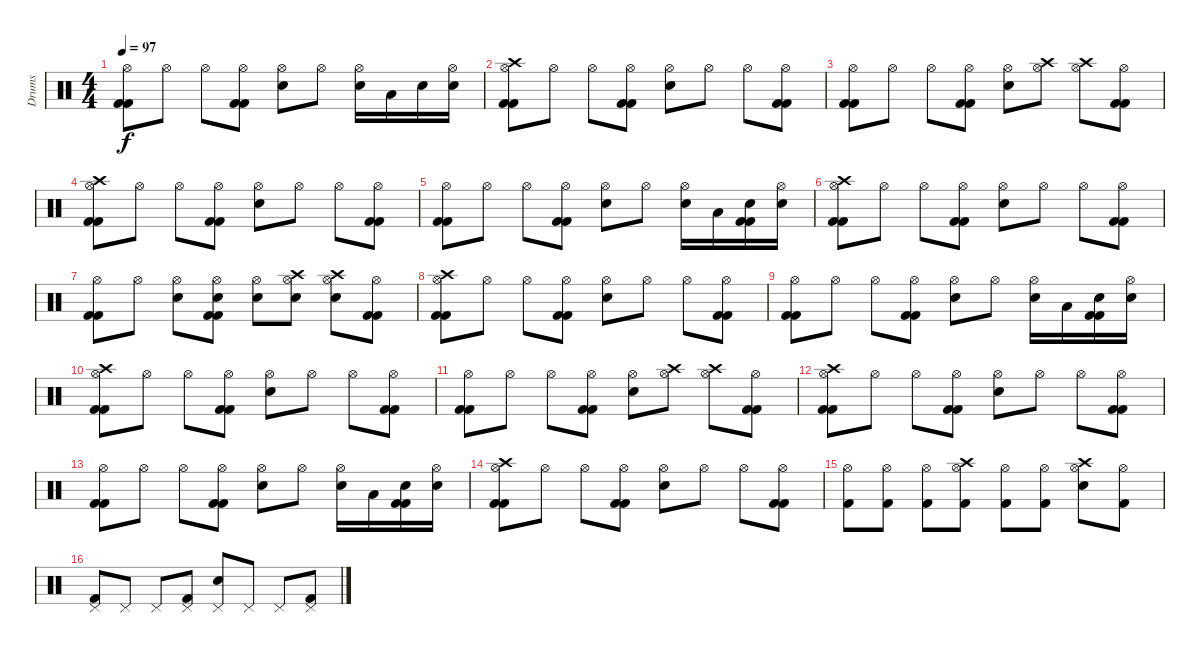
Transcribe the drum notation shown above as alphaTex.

\track ("Drums" "Drums") {instrument percussion}
\staff {score}
\articulation defaults
\ts (4 4)
\tempo 97
\clef neutral
\ks c
("Hi-Hat (open)" "Kick (hit) 2" "Kick (hit) 2").8{dy f} "Hi-Hat (open)".8 "Hi-Hat (open)".8 ("Hi-Hat (open)" "Kick (hit) 2" "Kick (hit) 2").8 ("Hi-Hat (open)" "Electric Snare (hit)").8 "Hi-Hat (open)".8 ("Hi-Hat (open)" "Electric Snare (hit)").16 "Low Tom (hit)".16 "Electric Snare (hit)".16 ("Hi-Hat (open)" "Electric Snare (hit)").16 |
("Hi-Hat (open)" "Crash high (hit)" "Kick (hit) 2" "Kick (hit) 2").8 "Hi-Hat (open)".8 "Hi-Hat (open)".8 ("Hi-Hat (open)" "Kick (hit) 2" "Kick (hit) 2").8 ("Hi-Hat (open)" "Electric Snare (hit)").8 "Hi-Hat (open)".8 "Hi-Hat (open)".8 ("Hi-Hat (open)" "Kick (hit) 2" "Kick (hit) 2").8 |
("Hi-Hat (open)" "Kick (hit) 2" "Kick (hit) 2").8 "Hi-Hat (open)".8 "Hi-Hat (open)".8 ("Hi-Hat (open)" "Kick (hit) 2" "Kick (hit) 2").8 ("Hi-Hat (open)" "Electric Snare (hit)").8 ("Hi-Hat (open)" "Crash high (hit)").8 ("Hi-Hat (open)" "Crash high (hit)").8 ("Hi-Hat (open)" "Kick (hit) 2" "Kick (hit) 2").8 |
("Hi-Hat (open)" "Crash high (hit)" "Kick (hit) 2" "Kick (hit) 2").8 "Hi-Hat (open)".8 "Hi-Hat (open)".8 ("Hi-Hat (open)" "Kick (hit) 2" "Kick (hit) 2").8 ("Hi-Hat (open)" "Electric Snare (hit)").8 "Hi-Hat (open)".8 "Hi-Hat (open)".8 ("Hi-Hat (open)" "Kick (hit) 2" "Kick (hit) 2").8 |
("Hi-Hat (open)" "Kick (hit) 2" "Kick (hit) 2").8 "Hi-Hat (open)".8 "Hi-Hat (open)".8 ("Hi-Hat (open)" "Kick (hit) 2" "Kick (hit) 2").8 ("Hi-Hat (open)" "Electric Snare (hit)").8 "Hi-Hat (open)".8 ("Hi-Hat (open)" "Electric Snare (hit)").16 "Low Tom (hit)".16 ("Electric Snare (hit)" "Kick (hit) 2" "Kick (hit) 2").16 ("Hi-Hat (open)" "Electric Snare (hit)").16 |
("Hi-Hat (open)" "Crash high (hit)" "Kick (hit) 2" "Kick (hit) 2").8 "Hi-Hat (open)".8 "Hi-Hat (open)".8 ("Hi-Hat (open)" "Kick (hit) 2" "Kick (hit) 2").8 ("Hi-Hat (open)" "Electric Snare (hit)").8 "Hi-Hat (open)".8 "Hi-Hat (open)".8 ("Hi-Hat (open)" "Kick (hit) 2" "Kick (hit) 2").8 |
("Hi-Hat (open)" "Kick (hit) 2" "Kick (hit) 2").8 "Hi-Hat (open)".8 ("Hi-Hat (open)" "Snare (hit) 2").8 ("Hi-Hat (open)" "Kick (hit) 2" "Snare (hit) 2" "Kick (hit) 2").8 ("Hi-Hat (open)" "Electric Snare (hit)").8 ("Hi-Hat (open)" "Crash high (hit)" "Snare (hit) 2").8 ("Hi-Hat (open)" "Crash high (hit)" "Snare (hit) 2").8 ("Hi-Hat (open)" "Kick (hit) 2" "Kick (hit) 2").8 |
("Hi-Hat (open)" "Crash high (hit)" "Kick (hit) 2" "Kick (hit) 2").8 "Hi-Hat (open)".8 "Hi-Hat (open)".8 ("Hi-Hat (open)" "Kick (hit) 2" "Kick (hit) 2").8 ("Hi-Hat (open)" "Electric Snare (hit)").8 "Hi-Hat (open)".8 "Hi-Hat (open)".8 ("Hi-Hat (open)" "Kick (hit) 2" "Kick (hit) 2").8 |
("Hi-Hat (open)" "Kick (hit) 2" "Kick (hit) 2").8 "Hi-Hat (open)".8 "Hi-Hat (open)".8 ("Hi-Hat (open)" "Kick (hit) 2" "Kick (hit) 2").8 ("Hi-Hat (open)" "Electric Snare (hit)").8 "Hi-Hat (open)".8 ("Hi-Hat (open)" "Electric Snare (hit)").16 "Low Tom (hit)".16 ("Electric Snare (hit)" "Kick (hit) 2" "Kick (hit) 2").16 ("Hi-Hat (open)" "Electric Snare (hit)").16 |
("Hi-Hat (open)" "Crash high (hit)" "Kick (hit) 2" "Kick (hit) 2").8 "Hi-Hat (open)".8 "Hi-Hat (open)".8 ("Hi-Hat (open)" "Kick (hit) 2" "Kick (hit) 2").8 ("Hi-Hat (open)" "Electric Snare (hit)").8 "Hi-Hat (open)".8 "Hi-Hat (open)".8 ("Hi-Hat (open)" "Kick (hit) 2" "Kick (hit) 2").8 |
("Hi-Hat (open)" "Kick (hit) 2" "Kick (hit) 2").8 "Hi-Hat (open)".8 "Hi-Hat (open)".8 ("Hi-Hat (open)" "Kick (hit) 2" "Kick (hit) 2").8 ("Hi-Hat (open)" "Electric Snare (hit)").8 ("Hi-Hat (open)" "Crash high (hit)").8 ("Hi-Hat (open)" "Crash high (hit)").8 ("Hi-Hat (open)" "Kick (hit) 2" "Kick (hit) 2").8 |
("Hi-Hat (open)" "Crash high (hit)" "Kick (hit) 2" "Kick (hit) 2").8 "Hi-Hat (open)".8 "Hi-Hat (open)".8 ("Hi-Hat (open)" "Kick (hit) 2" "Kick (hit) 2").8 ("Hi-Hat (open)" "Electric Snare (hit)").8 "Hi-Hat (open)".8 "Hi-Hat (open)".8 ("Hi-Hat (open)" "Kick (hit) 2" "Kick (hit) 2").8 |
("Hi-Hat (open)" "Kick (hit) 2" "Kick (hit) 2").8 "Hi-Hat (open)".8 "Hi-Hat (open)".8 ("Hi-Hat (open)" "Kick (hit) 2" "Kick (hit) 2").8 ("Hi-Hat (open)" "Electric Snare (hit)").8 "Hi-Hat (open)".8 ("Hi-Hat (open)" "Electric Snare (hit)").16 "Low Tom (hit)".16 ("Electric Snare (hit)" "Kick (hit) 2" "Kick (hit) 2").16 ("Hi-Hat (open)" "Electric Snare (hit)").16 |
("Hi-Hat (open)" "Crash high (hit)" "Kick (hit) 2" "Kick (hit) 2").8 "Hi-Hat (open)".8 "Hi-Hat (open)".8 ("Hi-Hat (open)" "Kick (hit) 2" "Kick (hit) 2").8 ("Hi-Hat (open)" "Electric Snare (hit)").8 "Hi-Hat (open)".8 "Hi-Hat (open)".8 ("Hi-Hat (open)" "Kick (hit) 2" "Kick (hit) 2").8 |
("Hi-Hat (open)" "Kick (hit) 2").8 ("Hi-Hat (open)" "Kick (hit) 2").8 ("Hi-Hat (open)" "Kick (hit) 2").8 ("Hi-Hat (open)" "Crash high (hit)" "Kick (hit) 2").8 ("Hi-Hat (open)" "Kick (hit) 2").8 ("Hi-Hat (open)" "Kick (hit) 2").8 ("Hi-Hat (open)" "Crash high (hit)" "Electric Snare (hit)").8 ("Hi-Hat (open)" "Kick (hit) 2").8 |
("Pedal Hi-Hat (hit)" "Kick (hit) 2").8 "Pedal Hi-Hat (hit)".8 "Pedal Hi-Hat (hit)".8 ("Pedal Hi-Hat (hit)" "Kick (hit) 2").8 ("Pedal Hi-Hat (hit)" "Electric Snare (hit)").8 "Pedal Hi-Hat (hit)".8 "Pedal Hi-Hat (hit)".8 ("Pedal Hi-Hat (hit)" "Kick (hit) 2").8
